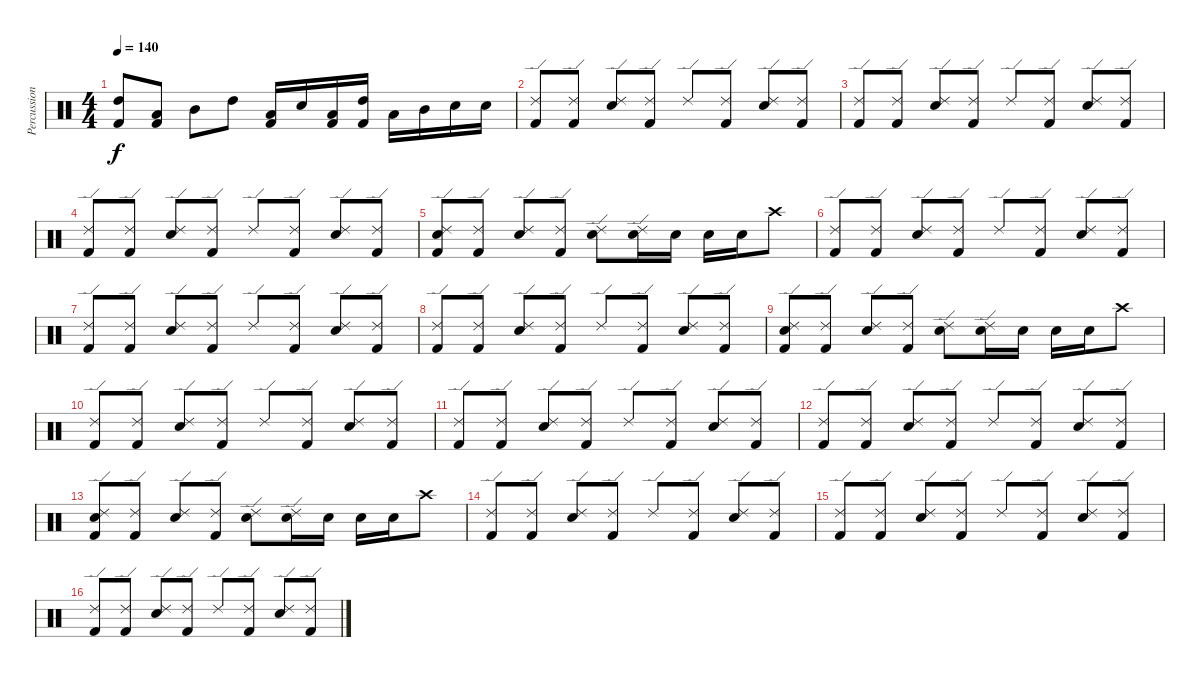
\track ("Percussion" "Percussion") {instrument percussion}
\staff {score}
\articulation defaults
\ts (4 4)
\tempo 140
\clef neutral
\ks c
("Kick (hit) 2" "High Tom (hit)").8{dy f} ("Kick (hit) 2" "Low Tom (hit)").8 "Mid Tom (hit)".8 "High Tom (hit)".8 ("Kick (hit) 2" "Low Tom (hit)").16 "Snare (hit) 2".16 ("Kick (hit) 2" "Low Tom (hit)").16 ("Kick (hit) 2" "High Tom (hit)").16 "Low Tom (hit)".16 "Mid Tom (hit)".16 "Snare (hit) 2".16 "Snare (hit) 2".16 |
("Kick (hit) 2" "Ride (edge) 2").8 ("Kick (hit) 2" "Ride (edge) 2").8 ("Snare (hit) 2" "Ride (edge) 2").8 ("Kick (hit) 2" "Ride (edge) 2").8 "Ride (edge) 2".8 ("Kick (hit) 2" "Ride (edge) 2").8 ("Snare (hit) 2" "Ride (edge) 2").8 ("Kick (hit) 2" "Ride (edge) 2").8 |
("Kick (hit) 2" "Ride (edge) 2").8 ("Kick (hit) 2" "Ride (edge) 2").8 ("Snare (hit) 2" "Ride (edge) 2").8 ("Kick (hit) 2" "Ride (edge) 2").8 "Ride (edge) 2".8 ("Kick (hit) 2" "Ride (edge) 2").8 ("Snare (hit) 2" "Ride (edge) 2").8 ("Kick (hit) 2" "Ride (edge) 2").8 |
("Kick (hit) 2" "Ride (edge) 2").8 ("Kick (hit) 2" "Ride (edge) 2").8 ("Snare (hit) 2" "Ride (edge) 2").8 ("Kick (hit) 2" "Ride (edge) 2").8 "Ride (edge) 2".8 ("Kick (hit) 2" "Ride (edge) 2").8 ("Snare (hit) 2" "Ride (edge) 2").8 ("Kick (hit) 2" "Ride (edge) 2").8 |
("Kick (hit) 2" "Snare (hit) 2" "Ride (edge) 2").8 ("Kick (hit) 2" "Ride (edge) 2").8 ("Snare (hit) 2" "Ride (edge) 2").8 ("Kick (hit) 2" "Ride (edge) 2").8 ("Snare (hit) 2" "Ride (edge) 2").8 ("Snare (hit) 2" "Ride (edge) 2").16 "Snare (hit) 2".16 "Snare (hit) 2".16 "Snare (hit) 2".16 "Crash high (hit)".8 |
("Kick (hit) 2" "Ride (edge) 2").8 ("Kick (hit) 2" "Ride (edge) 2").8 ("Snare (hit) 2" "Ride (edge) 2").8 ("Kick (hit) 2" "Ride (edge) 2").8 "Ride (edge) 2".8 ("Kick (hit) 2" "Ride (edge) 2").8 ("Snare (hit) 2" "Ride (edge) 2").8 ("Kick (hit) 2" "Ride (edge) 2").8 |
("Kick (hit) 2" "Ride (edge) 2").8 ("Kick (hit) 2" "Ride (edge) 2").8 ("Snare (hit) 2" "Ride (edge) 2").8 ("Kick (hit) 2" "Ride (edge) 2").8 "Ride (edge) 2".8 ("Kick (hit) 2" "Ride (edge) 2").8 ("Snare (hit) 2" "Ride (edge) 2").8 ("Kick (hit) 2" "Ride (edge) 2").8 |
("Kick (hit) 2" "Ride (edge) 2").8 ("Kick (hit) 2" "Ride (edge) 2").8 ("Snare (hit) 2" "Ride (edge) 2").8 ("Kick (hit) 2" "Ride (edge) 2").8 "Ride (edge) 2".8 ("Kick (hit) 2" "Ride (edge) 2").8 ("Snare (hit) 2" "Ride (edge) 2").8 ("Kick (hit) 2" "Ride (edge) 2").8 |
("Kick (hit) 2" "Snare (hit) 2" "Ride (edge) 2").8 ("Kick (hit) 2" "Ride (edge) 2").8 ("Snare (hit) 2" "Ride (edge) 2").8 ("Kick (hit) 2" "Ride (edge) 2").8 ("Snare (hit) 2" "Ride (edge) 2").8 ("Snare (hit) 2" "Ride (edge) 2").16 "Snare (hit) 2".16 "Snare (hit) 2".16 "Snare (hit) 2".16 "Crash high (hit)".8 |
("Kick (hit) 2" "Ride (edge) 2").8 ("Kick (hit) 2" "Ride (edge) 2").8 ("Snare (hit) 2" "Ride (edge) 2").8 ("Kick (hit) 2" "Ride (edge) 2").8 "Ride (edge) 2".8 ("Kick (hit) 2" "Ride (edge) 2").8 ("Snare (hit) 2" "Ride (edge) 2").8 ("Kick (hit) 2" "Ride (edge) 2").8 |
("Kick (hit) 2" "Ride (edge) 2").8 ("Kick (hit) 2" "Ride (edge) 2").8 ("Snare (hit) 2" "Ride (edge) 2").8 ("Kick (hit) 2" "Ride (edge) 2").8 "Ride (edge) 2".8 ("Kick (hit) 2" "Ride (edge) 2").8 ("Snare (hit) 2" "Ride (edge) 2").8 ("Kick (hit) 2" "Ride (edge) 2").8 |
("Kick (hit) 2" "Ride (edge) 2").8 ("Kick (hit) 2" "Ride (edge) 2").8 ("Snare (hit) 2" "Ride (edge) 2").8 ("Kick (hit) 2" "Ride (edge) 2").8 "Ride (edge) 2".8 ("Kick (hit) 2" "Ride (edge) 2").8 ("Snare (hit) 2" "Ride (edge) 2").8 ("Kick (hit) 2" "Ride (edge) 2").8 |
("Kick (hit) 2" "Snare (hit) 2" "Ride (edge) 2").8 ("Kick (hit) 2" "Ride (edge) 2").8 ("Snare (hit) 2" "Ride (edge) 2").8 ("Kick (hit) 2" "Ride (edge) 2").8 ("Snare (hit) 2" "Ride (edge) 2").8 ("Snare (hit) 2" "Ride (edge) 2").16 "Snare (hit) 2".16 "Snare (hit) 2".16 "Snare (hit) 2".16 "Crash high (hit)".8 |
("Kick (hit) 2" "Ride (edge) 2").8 ("Kick (hit) 2" "Ride (edge) 2").8 ("Snare (hit) 2" "Ride (edge) 2").8 ("Kick (hit) 2" "Ride (edge) 2").8 "Ride (edge) 2".8 ("Kick (hit) 2" "Ride (edge) 2").8 ("Snare (hit) 2" "Ride (edge) 2").8 ("Kick (hit) 2" "Ride (edge) 2").8 |
("Kick (hit) 2" "Ride (edge) 2").8 ("Kick (hit) 2" "Ride (edge) 2").8 ("Snare (hit) 2" "Ride (edge) 2").8 ("Kick (hit) 2" "Ride (edge) 2").8 "Ride (edge) 2".8 ("Kick (hit) 2" "Ride (edge) 2").8 ("Snare (hit) 2" "Ride (edge) 2").8 ("Kick (hit) 2" "Ride (edge) 2").8 |
("Kick (hit) 2" "Ride (edge) 2").8 ("Kick (hit) 2" "Ride (edge) 2").8 ("Snare (hit) 2" "Ride (edge) 2").8 ("Kick (hit) 2" "Ride (edge) 2").8 "Ride (edge) 2".8 ("Kick (hit) 2" "Ride (edge) 2").8 ("Snare (hit) 2" "Ride (edge) 2").8 ("Kick (hit) 2" "Ride (edge) 2").8
